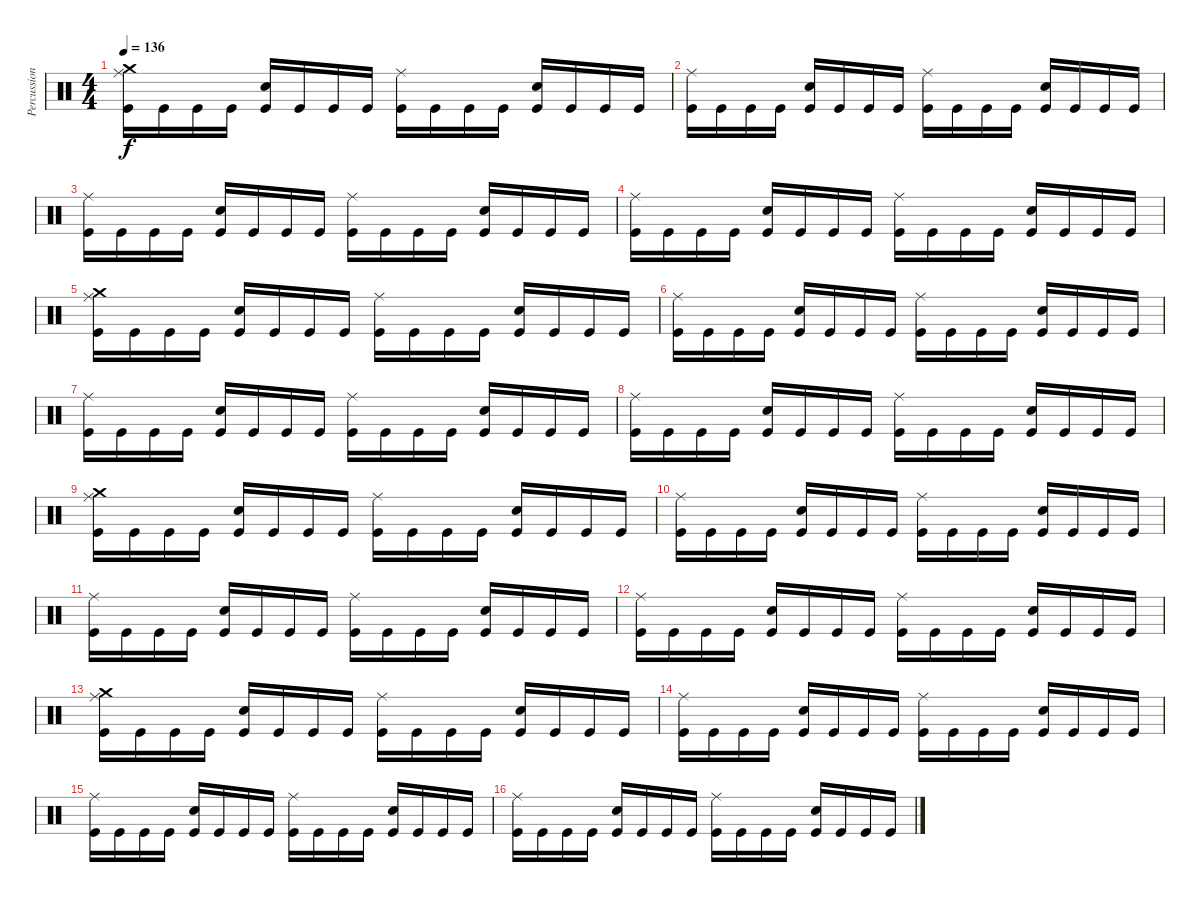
\track ("Percussion IV" "Percussion") {instrument percussion}
\staff {score}
\articulation defaults
\ts (4 4)
\tempo 136
\clef neutral
\ks c
("Crash medium (hit)" "Ride (middle)" "Kick (hit)").16{dy f} "Kick (hit)".16 "Kick (hit)".16 "Kick (hit)".16 ("Electric Snare (hit)" "Kick (hit)").16 "Kick (hit)".16 "Kick (hit)".16 "Kick (hit)".16 ("Ride (middle)" "Kick (hit)").16 "Kick (hit)".16 "Kick (hit)".16 "Kick (hit)".16 ("Electric Snare (hit)" "Kick (hit)").16 "Kick (hit)".16 "Kick (hit)".16 "Kick (hit)".16 |
("Ride (middle)" "Kick (hit)").16 "Kick (hit)".16 "Kick (hit)".16 "Kick (hit)".16 ("Electric Snare (hit)" "Kick (hit)").16 "Kick (hit)".16 "Kick (hit)".16 "Kick (hit)".16 ("Ride (middle)" "Kick (hit)").16 "Kick (hit)".16 "Kick (hit)".16 "Kick (hit)".16 ("Electric Snare (hit)" "Kick (hit)").16 "Kick (hit)".16 "Kick (hit)".16 "Kick (hit)".16 |
("Ride (middle)" "Kick (hit)").16 "Kick (hit)".16 "Kick (hit)".16 "Kick (hit)".16 ("Electric Snare (hit)" "Kick (hit)").16 "Kick (hit)".16 "Kick (hit)".16 "Kick (hit)".16 ("Ride (middle)" "Kick (hit)").16 "Kick (hit)".16 "Kick (hit)".16 "Kick (hit)".16 ("Electric Snare (hit)" "Kick (hit)").16 "Kick (hit)".16 "Kick (hit)".16 "Kick (hit)".16 |
("Ride (middle)" "Kick (hit)").16 "Kick (hit)".16 "Kick (hit)".16 "Kick (hit)".16 ("Electric Snare (hit)" "Kick (hit)").16 "Kick (hit)".16 "Kick (hit)".16 "Kick (hit)".16 ("Ride (middle)" "Kick (hit)").16 "Kick (hit)".16 "Kick (hit)".16 "Kick (hit)".16 ("Electric Snare (hit)" "Kick (hit)").16 "Kick (hit)".16 "Kick (hit)".16 "Kick (hit)".16 |
("Crash medium (hit)" "Ride (middle)" "Kick (hit)").16 "Kick (hit)".16 "Kick (hit)".16 "Kick (hit)".16 ("Electric Snare (hit)" "Kick (hit)").16 "Kick (hit)".16 "Kick (hit)".16 "Kick (hit)".16 ("Ride (middle)" "Kick (hit)").16 "Kick (hit)".16 "Kick (hit)".16 "Kick (hit)".16 ("Electric Snare (hit)" "Kick (hit)").16 "Kick (hit)".16 "Kick (hit)".16 "Kick (hit)".16 |
("Ride (middle)" "Kick (hit)").16 "Kick (hit)".16 "Kick (hit)".16 "Kick (hit)".16 ("Electric Snare (hit)" "Kick (hit)").16 "Kick (hit)".16 "Kick (hit)".16 "Kick (hit)".16 ("Ride (middle)" "Kick (hit)").16 "Kick (hit)".16 "Kick (hit)".16 "Kick (hit)".16 ("Electric Snare (hit)" "Kick (hit)").16 "Kick (hit)".16 "Kick (hit)".16 "Kick (hit)".16 |
("Ride (middle)" "Kick (hit)").16 "Kick (hit)".16 "Kick (hit)".16 "Kick (hit)".16 ("Electric Snare (hit)" "Kick (hit)").16 "Kick (hit)".16 "Kick (hit)".16 "Kick (hit)".16 ("Ride (middle)" "Kick (hit)").16 "Kick (hit)".16 "Kick (hit)".16 "Kick (hit)".16 ("Electric Snare (hit)" "Kick (hit)").16 "Kick (hit)".16 "Kick (hit)".16 "Kick (hit)".16 |
("Ride (middle)" "Kick (hit)").16 "Kick (hit)".16 "Kick (hit)".16 "Kick (hit)".16 ("Electric Snare (hit)" "Kick (hit)").16 "Kick (hit)".16 "Kick (hit)".16 "Kick (hit)".16 ("Ride (middle)" "Kick (hit)").16 "Kick (hit)".16 "Kick (hit)".16 "Kick (hit)".16 ("Electric Snare (hit)" "Kick (hit)").16 "Kick (hit)".16 "Kick (hit)".16 "Kick (hit)".16 |
("Crash medium (hit)" "Ride (middle)" "Kick (hit)").16 "Kick (hit)".16 "Kick (hit)".16 "Kick (hit)".16 ("Electric Snare (hit)" "Kick (hit)").16 "Kick (hit)".16 "Kick (hit)".16 "Kick (hit)".16 ("Ride (middle)" "Kick (hit)").16 "Kick (hit)".16 "Kick (hit)".16 "Kick (hit)".16 ("Electric Snare (hit)" "Kick (hit)").16 "Kick (hit)".16 "Kick (hit)".16 "Kick (hit)".16 |
("Ride (middle)" "Kick (hit)").16 "Kick (hit)".16 "Kick (hit)".16 "Kick (hit)".16 ("Electric Snare (hit)" "Kick (hit)").16 "Kick (hit)".16 "Kick (hit)".16 "Kick (hit)".16 ("Ride (middle)" "Kick (hit)").16 "Kick (hit)".16 "Kick (hit)".16 "Kick (hit)".16 ("Electric Snare (hit)" "Kick (hit)").16 "Kick (hit)".16 "Kick (hit)".16 "Kick (hit)".16 |
("Ride (middle)" "Kick (hit)").16 "Kick (hit)".16 "Kick (hit)".16 "Kick (hit)".16 ("Electric Snare (hit)" "Kick (hit)").16 "Kick (hit)".16 "Kick (hit)".16 "Kick (hit)".16 ("Ride (middle)" "Kick (hit)").16 "Kick (hit)".16 "Kick (hit)".16 "Kick (hit)".16 ("Electric Snare (hit)" "Kick (hit)").16 "Kick (hit)".16 "Kick (hit)".16 "Kick (hit)".16 |
("Ride (middle)" "Kick (hit)").16 "Kick (hit)".16 "Kick (hit)".16 "Kick (hit)".16 ("Electric Snare (hit)" "Kick (hit)").16 "Kick (hit)".16 "Kick (hit)".16 "Kick (hit)".16 ("Ride (middle)" "Kick (hit)").16 "Kick (hit)".16 "Kick (hit)".16 "Kick (hit)".16 ("Electric Snare (hit)" "Kick (hit)").16 "Kick (hit)".16 "Kick (hit)".16 "Kick (hit)".16 |
("Crash medium (hit)" "Ride (middle)" "Kick (hit)").16 "Kick (hit)".16 "Kick (hit)".16 "Kick (hit)".16 ("Electric Snare (hit)" "Kick (hit)").16 "Kick (hit)".16 "Kick (hit)".16 "Kick (hit)".16 ("Ride (middle)" "Kick (hit)").16 "Kick (hit)".16 "Kick (hit)".16 "Kick (hit)".16 ("Electric Snare (hit)" "Kick (hit)").16 "Kick (hit)".16 "Kick (hit)".16 "Kick (hit)".16 |
("Ride (middle)" "Kick (hit)").16 "Kick (hit)".16 "Kick (hit)".16 "Kick (hit)".16 ("Electric Snare (hit)" "Kick (hit)").16 "Kick (hit)".16 "Kick (hit)".16 "Kick (hit)".16 ("Ride (middle)" "Kick (hit)").16 "Kick (hit)".16 "Kick (hit)".16 "Kick (hit)".16 ("Electric Snare (hit)" "Kick (hit)").16 "Kick (hit)".16 "Kick (hit)".16 "Kick (hit)".16 |
("Ride (middle)" "Kick (hit)").16 "Kick (hit)".16 "Kick (hit)".16 "Kick (hit)".16 ("Electric Snare (hit)" "Kick (hit)").16 "Kick (hit)".16 "Kick (hit)".16 "Kick (hit)".16 ("Ride (middle)" "Kick (hit)").16 "Kick (hit)".16 "Kick (hit)".16 "Kick (hit)".16 ("Electric Snare (hit)" "Kick (hit)").16 "Kick (hit)".16 "Kick (hit)".16 "Kick (hit)".16 |
("Ride (middle)" "Kick (hit)").16 "Kick (hit)".16 "Kick (hit)".16 "Kick (hit)".16 ("Electric Snare (hit)" "Kick (hit)").16 "Kick (hit)".16 "Kick (hit)".16 "Kick (hit)".16 ("Ride (middle)" "Kick (hit)").16 "Kick (hit)".16 "Kick (hit)".16 "Kick (hit)".16 ("Electric Snare (hit)" "Kick (hit)").16 "Kick (hit)".16 "Kick (hit)".16 "Kick (hit)".16
